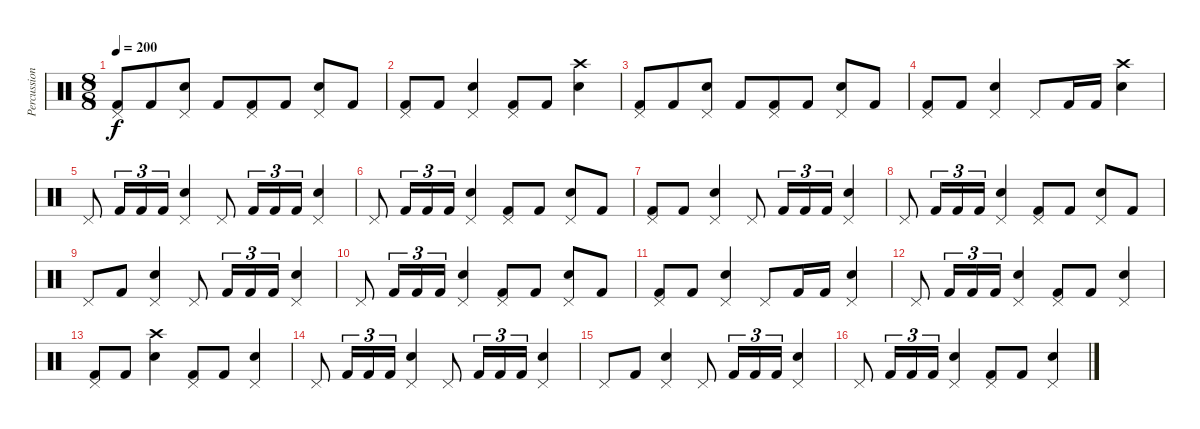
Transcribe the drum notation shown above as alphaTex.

\track ("Percussions" "Percussion") {instrument percussion}
\staff {score}
\articulation defaults
\ts (8 8)
\tempo 200
\clef neutral
\ks c
("Pedal Hi-Hat (hit)" "Kick (hit) 2").8{dy f} "Kick (hit) 2".8 ("Pedal Hi-Hat (hit)" "Snare (hit) 2").8 "Kick (hit) 2".8 ("Pedal Hi-Hat (hit)" "Kick (hit) 2").8 "Kick (hit) 2".8 ("Pedal Hi-Hat (hit)" "Snare (hit) 2").8 "Kick (hit) 2".8 |
("Pedal Hi-Hat (hit)" "Kick (hit) 2").8 "Kick (hit) 2".8 ("Pedal Hi-Hat (hit)" "Snare (hit) 2").4 ("Pedal Hi-Hat (hit)" "Kick (hit) 2").8 "Kick (hit) 2".8 ("Crash high (hit)" "Snare (hit) 2").4 |
("Pedal Hi-Hat (hit)" "Kick (hit) 2").8 "Kick (hit) 2".8 ("Pedal Hi-Hat (hit)" "Snare (hit) 2").8 "Kick (hit) 2".8 ("Pedal Hi-Hat (hit)" "Kick (hit) 2").8 "Kick (hit) 2".8 ("Pedal Hi-Hat (hit)" "Snare (hit) 2").8 "Kick (hit) 2".8 |
("Pedal Hi-Hat (hit)" "Kick (hit) 2").8 "Kick (hit) 2".8 ("Pedal Hi-Hat (hit)" "Snare (hit) 2").4 "Pedal Hi-Hat (hit)".8 "Kick (hit) 2".16 "Kick (hit) 2".16 ("Crash high (hit)" "Snare (hit) 2").4 |
"Pedal Hi-Hat (hit)".8 "Kick (hit) 2".16{tu (3 2)} "Kick (hit) 2".16{tu (3 2)} "Kick (hit) 2".16{tu (3 2)} ("Pedal Hi-Hat (hit)" "Snare (hit) 2").4 "Pedal Hi-Hat (hit)".8 "Kick (hit) 2".16{tu (3 2)} "Kick (hit) 2".16{tu (3 2)} "Kick (hit) 2".16{tu (3 2)} ("Pedal Hi-Hat (hit)" "Snare (hit) 2").4 |
"Pedal Hi-Hat (hit)".8 "Kick (hit) 2".16{tu (3 2)} "Kick (hit) 2".16{tu (3 2)} "Kick (hit) 2".16{tu (3 2)} ("Pedal Hi-Hat (hit)" "Snare (hit) 2").4 ("Pedal Hi-Hat (hit)" "Kick (hit) 2").8 "Kick (hit) 2".8 ("Pedal Hi-Hat (hit)" "Snare (hit) 2").8 "Kick (hit) 2".8 |
("Pedal Hi-Hat (hit)" "Kick (hit) 2").8 "Kick (hit) 2".8 ("Pedal Hi-Hat (hit)" "Snare (hit) 2").4 "Pedal Hi-Hat (hit)".8 "Kick (hit) 2".16{tu (3 2)} "Kick (hit) 2".16{tu (3 2)} "Kick (hit) 2".16{tu (3 2)} ("Pedal Hi-Hat (hit)" "Snare (hit) 2").4 |
"Pedal Hi-Hat (hit)".8 "Kick (hit) 2".16{tu (3 2)} "Kick (hit) 2".16{tu (3 2)} "Kick (hit) 2".16{tu (3 2)} ("Pedal Hi-Hat (hit)" "Snare (hit) 2").4 ("Pedal Hi-Hat (hit)" "Kick (hit) 2").8 "Kick (hit) 2".8 ("Pedal Hi-Hat (hit)" "Snare (hit) 2").8 "Kick (hit) 2".8 |
"Pedal Hi-Hat (hit)".8 "Kick (hit) 2".8 ("Pedal Hi-Hat (hit)" "Snare (hit) 2").4 "Pedal Hi-Hat (hit)".8 "Kick (hit) 2".16{tu (3 2)} "Kick (hit) 2".16{tu (3 2)} "Kick (hit) 2".16{tu (3 2)} ("Pedal Hi-Hat (hit)" "Snare (hit) 2").4 |
"Pedal Hi-Hat (hit)".8 "Kick (hit) 2".16{tu (3 2)} "Kick (hit) 2".16{tu (3 2)} "Kick (hit) 2".16{tu (3 2)} ("Pedal Hi-Hat (hit)" "Snare (hit) 2").4 ("Pedal Hi-Hat (hit)" "Kick (hit) 2").8 "Kick (hit) 2".8 ("Pedal Hi-Hat (hit)" "Snare (hit) 2").8 "Kick (hit) 2".8 |
("Pedal Hi-Hat (hit)" "Kick (hit) 2").8 "Kick (hit) 2".8 ("Pedal Hi-Hat (hit)" "Snare (hit) 2").4 "Pedal Hi-Hat (hit)".8 "Kick (hit) 2".16 "Kick (hit) 2".16 ("Pedal Hi-Hat (hit)" "Snare (hit) 2").4 |
"Pedal Hi-Hat (hit)".8 "Kick (hit) 2".16{tu (3 2)} "Kick (hit) 2".16{tu (3 2)} "Kick (hit) 2".16{tu (3 2)} ("Pedal Hi-Hat (hit)" "Snare (hit) 2").4 ("Pedal Hi-Hat (hit)" "Kick (hit) 2").8 "Kick (hit) 2".8 ("Pedal Hi-Hat (hit)" "Snare (hit) 2").4 |
("Pedal Hi-Hat (hit)" "Kick (hit) 2").8 "Kick (hit) 2".8 ("Crash high (hit)" "Snare (hit) 2").4 ("Pedal Hi-Hat (hit)" "Kick (hit) 2").8 "Kick (hit) 2".8 ("Pedal Hi-Hat (hit)" "Snare (hit) 2").4 |
"Pedal Hi-Hat (hit)".8 "Kick (hit) 2".16{tu (3 2)} "Kick (hit) 2".16{tu (3 2)} "Kick (hit) 2".16{tu (3 2)} ("Pedal Hi-Hat (hit)" "Snare (hit) 2").4 "Pedal Hi-Hat (hit)".8 "Kick (hit) 2".16{tu (3 2)} "Kick (hit) 2".16{tu (3 2)} "Kick (hit) 2".16{tu (3 2)} ("Pedal Hi-Hat (hit)" "Snare (hit) 2").4 |
"Pedal Hi-Hat (hit)".8 "Kick (hit) 2".8 ("Pedal Hi-Hat (hit)" "Snare (hit) 2").4 "Pedal Hi-Hat (hit)".8 "Kick (hit) 2".16{tu (3 2)} "Kick (hit) 2".16{tu (3 2)} "Kick (hit) 2".16{tu (3 2)} ("Pedal Hi-Hat (hit)" "Snare (hit) 2").4 |
"Pedal Hi-Hat (hit)".8 "Kick (hit) 2".16{tu (3 2)} "Kick (hit) 2".16{tu (3 2)} "Kick (hit) 2".16{tu (3 2)} ("Pedal Hi-Hat (hit)" "Snare (hit) 2").4 ("Pedal Hi-Hat (hit)" "Kick (hit) 2").8 "Kick (hit) 2".8 ("Pedal Hi-Hat (hit)" "Snare (hit) 2").4
